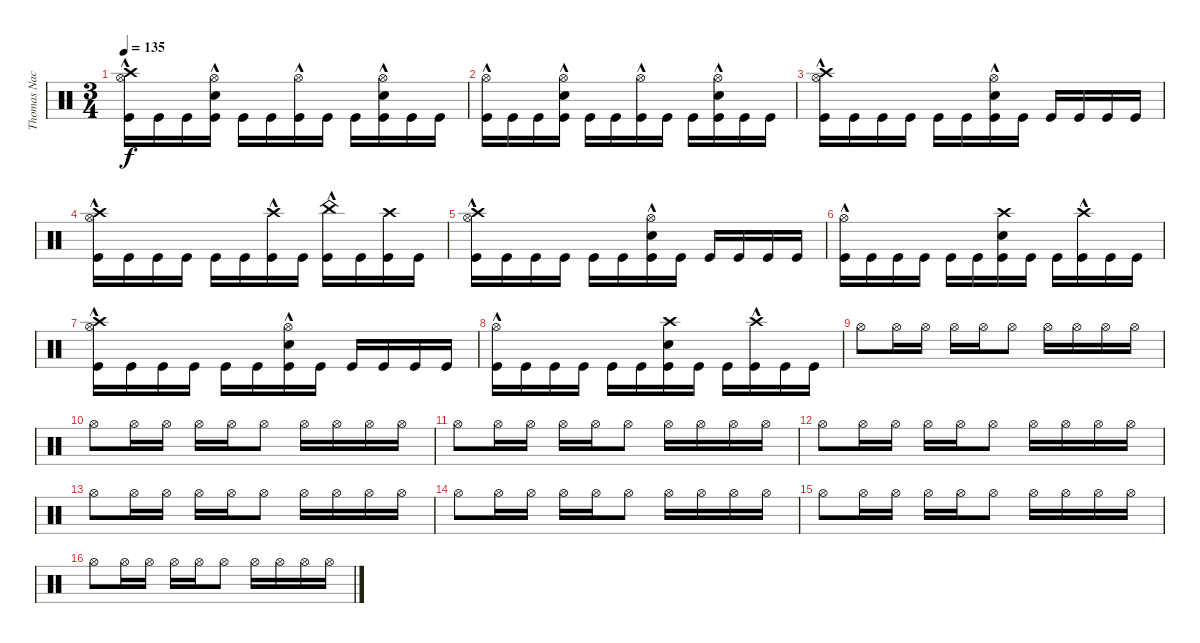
\track ("Thomas Nack" "Thomas Nac") {instrument percussion}
\staff {score}
\articulation defaults
\ts (3 4)
\tempo 135
\clef neutral
\ks c
("Crash high (hit)" "Hi-Hat (open)"{hac} "Kick (hit)").16{dy f} "Kick (hit)".16 "Kick (hit)".16 ("Hi-Hat (open)"{hac} "Kick (hit)" "Electric Snare (hit)").16 "Kick (hit)".16 "Kick (hit)".16 ("Hi-Hat (open)"{hac} "Kick (hit)").16 "Kick (hit)".16 "Kick (hit)".16 ("Hi-Hat (open)"{hac} "Kick (hit)" "Electric Snare (hit)").16 "Kick (hit)".16 "Kick (hit)".16 |
("Hi-Hat (open)"{hac} "Kick (hit)").16 "Kick (hit)".16 "Kick (hit)".16 ("Hi-Hat (open)"{hac} "Kick (hit)" "Electric Snare (hit)").16 "Kick (hit)".16 "Kick (hit)".16 ("Hi-Hat (open)"{hac} "Kick (hit)").16 "Kick (hit)".16 "Kick (hit)".16 ("Hi-Hat (open)"{hac} "Kick (hit)" "Electric Snare (hit)").16 "Kick (hit)".16 "Kick (hit)".16 |
("Crash high (hit)" "Hi-Hat (open)"{hac} "Kick (hit)").16 "Kick (hit)".16 "Kick (hit)".16 "Kick (hit)".16 "Kick (hit)".16 "Kick (hit)".16 ("Hi-Hat (open)"{hac} "Snare (hit) 2" "Kick (hit)").16 "Kick (hit)".16 "Kick (hit)".16 "Kick (hit)".16 "Kick (hit)".16 "Kick (hit)".16 |
("Crash high (hit)" "Hi-Hat (open)"{hac} "Kick (hit)").16 "Kick (hit)".16 "Kick (hit)".16 "Kick (hit)".16 "Kick (hit)".16 "Kick (hit)".16 ("Crash high (hit)"{hac} "Kick (hit)").16 "Kick (hit)".16 ("China (hit)"{hac} "Kick (hit)").16 "Kick (hit)".16 ("Crash high (hit)" "Kick (hit)").16 "Kick (hit)".16 |
("Hi-Hat (open)"{hac} "Kick (hit)" "Crash high (hit)").16 "Kick (hit)".16 "Kick (hit)".16 "Kick (hit)".16 "Kick (hit)".16 "Kick (hit)".16 ("Hi-Hat (open)"{hac} "Snare (hit) 2" "Kick (hit)").16 "Kick (hit)".16 "Kick (hit)".16 "Kick (hit)".16 "Kick (hit)".16 "Kick (hit)".16 |
("Hi-Hat (open)"{hac} "Kick (hit)").16 "Kick (hit)".16 "Kick (hit)".16 "Kick (hit)".16 "Kick (hit)".16 "Kick (hit)".16 ("Crash high (hit)" "Snare (hit) 2" "Kick (hit)").16 "Kick (hit)".16 "Kick (hit)".16 ("Crash high (hit)"{hac} "Kick (hit)").16 "Kick (hit)".16 "Kick (hit)".16 |
("Hi-Hat (open)"{hac} "Kick (hit)" "Crash high (hit)").16 "Kick (hit)".16 "Kick (hit)".16 "Kick (hit)".16 "Kick (hit)".16 "Kick (hit)".16 ("Hi-Hat (open)"{hac} "Snare (hit) 2" "Kick (hit)").16 "Kick (hit)".16 "Kick (hit)".16 "Kick (hit)".16 "Kick (hit)".16 "Kick (hit)".16 |
("Hi-Hat (open)"{hac} "Kick (hit)").16 "Kick (hit)".16 "Kick (hit)".16 "Kick (hit)".16 "Kick (hit)".16 "Kick (hit)".16 ("Crash high (hit)" "Snare (hit) 2" "Kick (hit)").16 "Kick (hit)".16 "Kick (hit)".16 ("Crash high (hit)"{hac} "Kick (hit)").16 "Kick (hit)".16 "Kick (hit)".16 |
"Hi-Hat (open)".8 "Hi-Hat (open)".16 "Hi-Hat (open)".16 "Hi-Hat (open)".16 "Hi-Hat (open)".16 "Hi-Hat (open)".8 "Hi-Hat (open)".16 "Hi-Hat (open)".16 "Hi-Hat (open)".16 "Hi-Hat (open)".16 |
"Hi-Hat (open)".8 "Hi-Hat (open)".16 "Hi-Hat (open)".16 "Hi-Hat (open)".16 "Hi-Hat (open)".16 "Hi-Hat (open)".8 "Hi-Hat (open)".16 "Hi-Hat (open)".16 "Hi-Hat (open)".16 "Hi-Hat (open)".16 |
"Hi-Hat (open)".8 "Hi-Hat (open)".16 "Hi-Hat (open)".16 "Hi-Hat (open)".16 "Hi-Hat (open)".16 "Hi-Hat (open)".8 "Hi-Hat (open)".16 "Hi-Hat (open)".16 "Hi-Hat (open)".16 "Hi-Hat (open)".16 |
"Hi-Hat (open)".8 "Hi-Hat (open)".16 "Hi-Hat (open)".16 "Hi-Hat (open)".16 "Hi-Hat (open)".16 "Hi-Hat (open)".8 "Hi-Hat (open)".16 "Hi-Hat (open)".16 "Hi-Hat (open)".16 "Hi-Hat (open)".16 |
"Hi-Hat (open)".8 "Hi-Hat (open)".16 "Hi-Hat (open)".16 "Hi-Hat (open)".16 "Hi-Hat (open)".16 "Hi-Hat (open)".8 "Hi-Hat (open)".16 "Hi-Hat (open)".16 "Hi-Hat (open)".16 "Hi-Hat (open)".16 |
"Hi-Hat (open)".8 "Hi-Hat (open)".16 "Hi-Hat (open)".16 "Hi-Hat (open)".16 "Hi-Hat (open)".16 "Hi-Hat (open)".8 "Hi-Hat (open)".16 "Hi-Hat (open)".16 "Hi-Hat (open)".16 "Hi-Hat (open)".16 |
"Hi-Hat (open)".8 "Hi-Hat (open)".16 "Hi-Hat (open)".16 "Hi-Hat (open)".16 "Hi-Hat (open)".16 "Hi-Hat (open)".8 "Hi-Hat (open)".16 "Hi-Hat (open)".16 "Hi-Hat (open)".16 "Hi-Hat (open)".16 |
"Hi-Hat (open)".8 "Hi-Hat (open)".16 "Hi-Hat (open)".16 "Hi-Hat (open)".16 "Hi-Hat (open)".16 "Hi-Hat (open)".8 "Hi-Hat (open)".16 "Hi-Hat (open)".16 "Hi-Hat (open)".16 "Hi-Hat (open)".16
